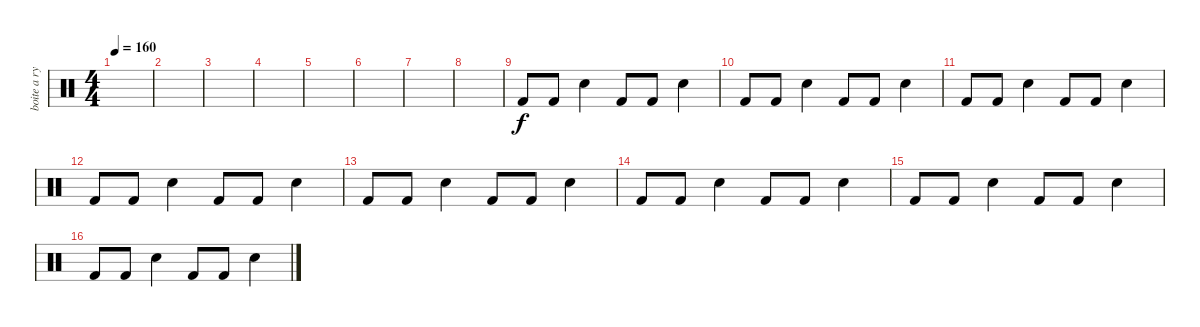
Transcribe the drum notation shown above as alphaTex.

\track ("boite a rythme" "boite a ry") {instrument percussion}
\staff {score}
\articulation defaults
\ts (4 4)
\tempo 160
\clef neutral
\ks c
|
|
|
|
|
|
|
|
"Kick (hit) 2".8 "Kick (hit) 2".8 "Snare (hit) 2".4 "Kick (hit) 2".8 "Kick (hit) 2".8 "Snare (hit) 2".4 |
"Kick (hit) 2".8 "Kick (hit) 2".8 "Snare (hit) 2".4 "Kick (hit) 2".8 "Kick (hit) 2".8 "Snare (hit) 2".4 |
"Kick (hit) 2".8 "Kick (hit) 2".8 "Snare (hit) 2".4 "Kick (hit) 2".8 "Kick (hit) 2".8 "Snare (hit) 2".4 |
"Kick (hit) 2".8 "Kick (hit) 2".8 "Snare (hit) 2".4 "Kick (hit) 2".8 "Kick (hit) 2".8 "Snare (hit) 2".4 |
"Kick (hit) 2".8 "Kick (hit) 2".8 "Snare (hit) 2".4 "Kick (hit) 2".8 "Kick (hit) 2".8 "Snare (hit) 2".4 |
"Kick (hit) 2".8 "Kick (hit) 2".8 "Snare (hit) 2".4 "Kick (hit) 2".8 "Kick (hit) 2".8 "Snare (hit) 2".4 |
"Kick (hit) 2".8 "Kick (hit) 2".8 "Snare (hit) 2".4 "Kick (hit) 2".8 "Kick (hit) 2".8 "Snare (hit) 2".4 |
"Kick (hit) 2".8 "Kick (hit) 2".8 "Snare (hit) 2".4 "Kick (hit) 2".8 "Kick (hit) 2".8 "Snare (hit) 2".4
